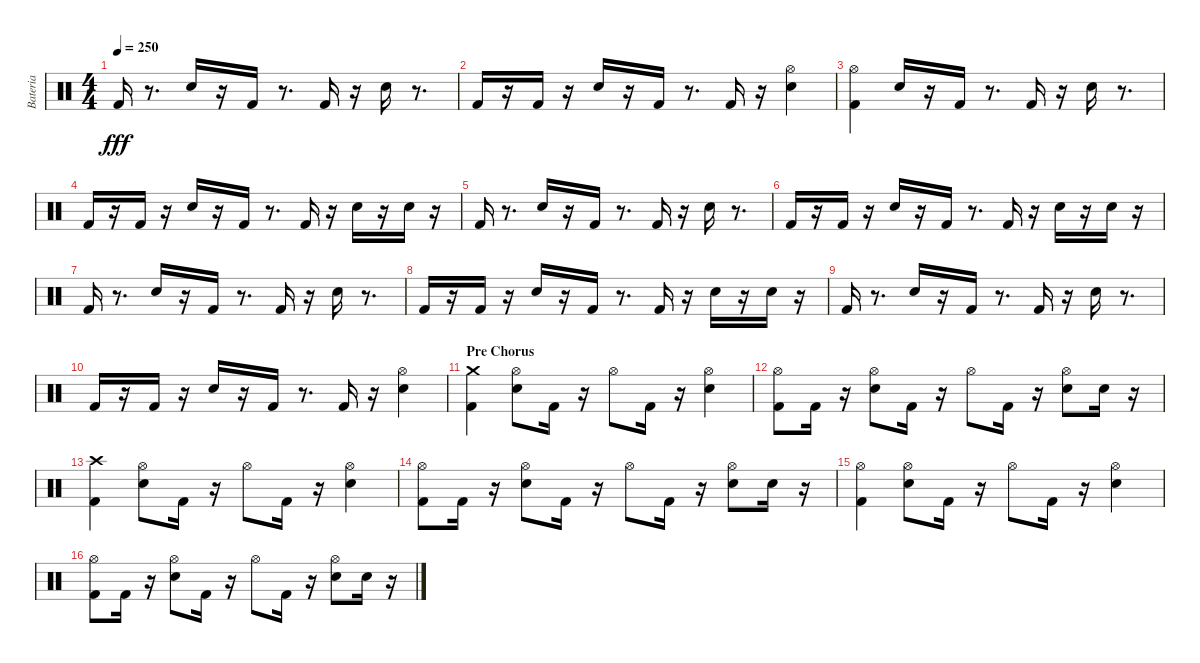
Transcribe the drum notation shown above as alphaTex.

\track ("Bateria" "Bateria") {instrument percussion}
\staff {score}
\articulation defaults
\ts (4 4)
\tempo 250
\clef neutral
\ks c "Kick (hit) 2".16{dy fff}
r.8{d} "Electric Snare (hit)".16 r.16 "Kick (hit) 2".16 r.8{d} "Kick (hit) 2".16 r.16 "Electric Snare (hit)".16 r.8{d} |
"Kick (hit) 2".16 r.16 "Kick (hit) 2".16 r.16 "Electric Snare (hit)".16 r.16 "Kick (hit) 2".16 r.8{d} "Kick (hit) 2".16 r.16 ("Electric Snare (hit)" "Hi-Hat (open)").4 |
("Hi-Hat (open)" "Kick (hit) 2").4 "Electric Snare (hit)".16 r.16 "Kick (hit) 2".16 r.8{d} "Kick (hit) 2".16 r.16 "Electric Snare (hit)".16 r.8{d} |
"Kick (hit) 2".16 r.16 "Kick (hit) 2".16 r.16 "Electric Snare (hit)".16 r.16 "Kick (hit) 2".16 r.8{d} "Kick (hit) 2".16 r.16 "Electric Snare (hit)".16 r.16 "Electric Snare (hit)".16 r.16 |
"Kick (hit) 2".16 r.8{d} "Electric Snare (hit)".16 r.16 "Kick (hit) 2".16 r.8{d} "Kick (hit) 2".16 r.16 "Electric Snare (hit)".16 r.8{d} |
"Kick (hit) 2".16 r.16 "Kick (hit) 2".16 r.16 "Electric Snare (hit)".16 r.16 "Kick (hit) 2".16 r.8{d} "Kick (hit) 2".16 r.16 "Electric Snare (hit)".16 r.16 "Electric Snare (hit)".16 r.16 |
"Kick (hit) 2".16 r.8{d} "Electric Snare (hit)".16 r.16 "Kick (hit) 2".16 r.8{d} "Kick (hit) 2".16 r.16 "Electric Snare (hit)".16 r.8{d} |
"Kick (hit) 2".16 r.16 "Kick (hit) 2".16 r.16 "Electric Snare (hit)".16 r.16 "Kick (hit) 2".16 r.8{d} "Kick (hit) 2".16 r.16 "Electric Snare (hit)".16 r.16 "Electric Snare (hit)".16 r.16 |
"Kick (hit) 2".16 r.8{d} "Electric Snare (hit)".16 r.16 "Kick (hit) 2".16 r.8{d} "Kick (hit) 2".16 r.16 "Electric Snare (hit)".16 r.8{d} |
"Kick (hit) 2".16 r.16 "Kick (hit) 2".16 r.16 "Electric Snare (hit)".16 r.16 "Kick (hit) 2".16 r.8{d} "Kick (hit) 2".16 r.16 ("Electric Snare (hit)" "Hi-Hat (open)").4 |
\section ("" "Pre Chorus")
("Crash medium (hit)" "Kick (hit) 2").4 ("Electric Snare (hit)" "Hi-Hat (open)").8 "Kick (hit) 2".16 r.16 "Hi-Hat (open)".8 "Kick (hit) 2".16 r.16 ("Electric Snare (hit)" "Hi-Hat (open)").4 |
("Kick (hit) 2" "Hi-Hat (open)").8 "Kick (hit) 2".16 r.16 ("Electric Snare (hit)" "Hi-Hat (open)").8 "Kick (hit) 2".16 r.16 "Hi-Hat (open)".8 "Kick (hit) 2".16 r.16 ("Electric Snare (hit)" "Hi-Hat (open)").8 "Electric Snare (hit)".16 r.16 |
("Kick (hit) 2" "Crash high (hit)").4 ("Electric Snare (hit)" "Hi-Hat (open)").8 "Kick (hit) 2".16 r.16 "Hi-Hat (open)".8 "Kick (hit) 2".16 r.16 ("Electric Snare (hit)" "Hi-Hat (open)").4 |
("Kick (hit) 2" "Hi-Hat (open)").8 "Kick (hit) 2".16 r.16 ("Electric Snare (hit)" "Hi-Hat (open)").8 "Kick (hit) 2".16 r.16 "Hi-Hat (open)".8 "Kick (hit) 2".16 r.16 ("Electric Snare (hit)" "Hi-Hat (open)").8 "Electric Snare (hit)".16 r.16 |
("Kick (hit) 2" "Hi-Hat (open)").4 ("Electric Snare (hit)" "Hi-Hat (open)").8 "Kick (hit) 2".16 r.16 "Hi-Hat (open)".8 "Kick (hit) 2".16 r.16 ("Electric Snare (hit)" "Hi-Hat (open)").4 |
("Kick (hit) 2" "Hi-Hat (open)").8 "Kick (hit) 2".16 r.16 ("Electric Snare (hit)" "Hi-Hat (open)").8 "Kick (hit) 2".16 r.16 "Hi-Hat (open)".8 "Kick (hit) 2".16 r.16 ("Electric Snare (hit)" "Hi-Hat (open)").8 "Electric Snare (hit)".16 r.16
